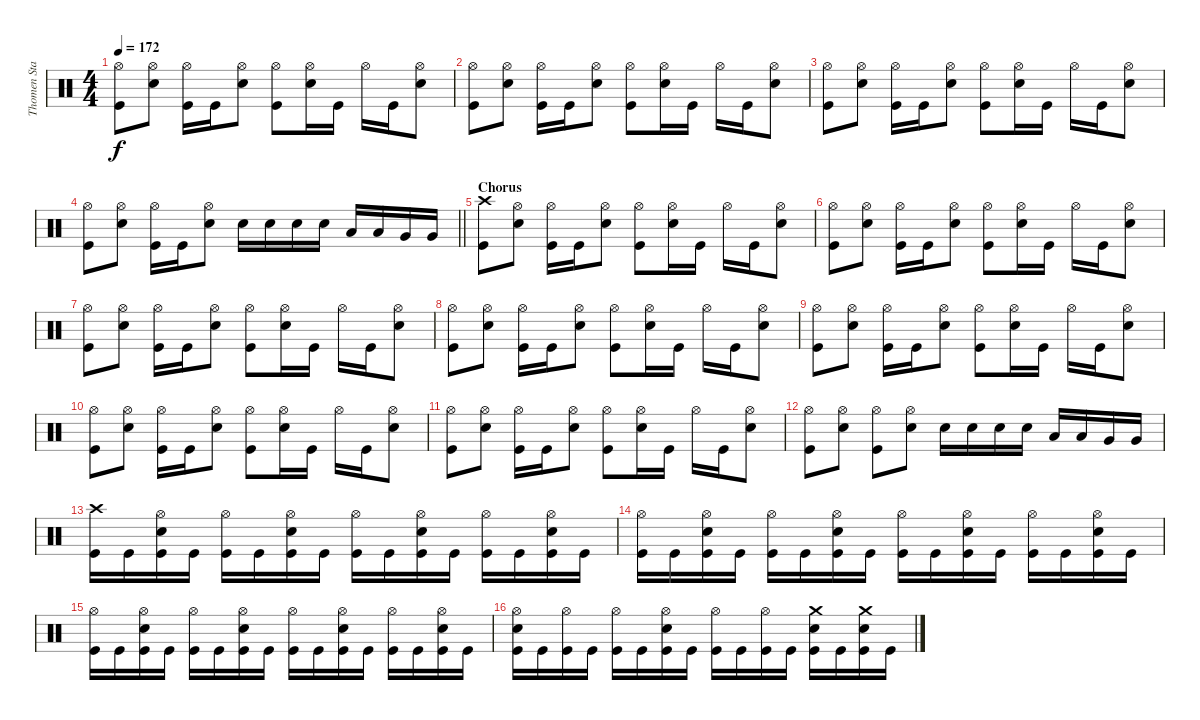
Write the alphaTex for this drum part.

\track ("Thomen Stauch" "Thomen Sta") {instrument percussion}
\staff {score}
\articulation defaults
\ts (4 4)
\tempo 172
\clef neutral
\ks c
("Hi-Hat (open)" "Kick (hit)").8{dy f} ("Hi-Hat (open)" "Snare (hit) 2").8 ("Hi-Hat (open)" "Kick (hit)").16 "Kick (hit)".16 ("Hi-Hat (open)" "Snare (hit) 2").8 ("Hi-Hat (open)" "Kick (hit)").8 ("Hi-Hat (open)" "Snare (hit) 2").16 "Kick (hit)".16 "Hi-Hat (open)".16 "Kick (hit)".16 ("Hi-Hat (open)" "Snare (hit) 2").8 |
("Hi-Hat (open)" "Kick (hit)").8 ("Hi-Hat (open)" "Snare (hit) 2").8 ("Hi-Hat (open)" "Kick (hit)").16 "Kick (hit)".16 ("Hi-Hat (open)" "Snare (hit) 2").8 ("Hi-Hat (open)" "Kick (hit)").8 ("Hi-Hat (open)" "Snare (hit) 2").16 "Kick (hit)".16 "Hi-Hat (open)".16 "Kick (hit)".16 ("Hi-Hat (open)" "Snare (hit) 2").8 |
("Hi-Hat (open)" "Kick (hit)").8 ("Hi-Hat (open)" "Snare (hit) 2").8 ("Hi-Hat (open)" "Kick (hit)").16 "Kick (hit)".16 ("Hi-Hat (open)" "Snare (hit) 2").8 ("Hi-Hat (open)" "Kick (hit)").8 ("Hi-Hat (open)" "Snare (hit) 2").16 "Kick (hit)".16 "Hi-Hat (open)".16 "Kick (hit)".16 ("Hi-Hat (open)" "Snare (hit) 2").8 |
\barLineRight lightlight
("Hi-Hat (open)" "Kick (hit)").8 ("Hi-Hat (open)" "Snare (hit) 2").8 ("Hi-Hat (open)" "Kick (hit)").16 "Kick (hit)".16 ("Hi-Hat (open)" "Snare (hit) 2").8 "Snare (hit) 2".16 "Snare (hit) 2".16 "Snare (hit) 2".16 "Snare (hit) 2".16 "Low Tom (hit)".16 "Low Tom (hit)".16 "Very Low Tom (hit)".16 "Very Low Tom (hit)".16 |
\section ("" "Chorus")
("Crash high (hit)" "Kick (hit)").8 ("Hi-Hat (open)" "Snare (hit) 2").8 ("Hi-Hat (open)" "Kick (hit)").16 "Kick (hit)".16 ("Hi-Hat (open)" "Snare (hit) 2").8 ("Hi-Hat (open)" "Kick (hit)").8 ("Hi-Hat (open)" "Snare (hit) 2").16 "Kick (hit)".16 "Hi-Hat (open)".16 "Kick (hit)".16 ("Hi-Hat (open)" "Snare (hit) 2").8 |
("Hi-Hat (open)" "Kick (hit)").8 ("Hi-Hat (open)" "Snare (hit) 2").8 ("Hi-Hat (open)" "Kick (hit)").16 "Kick (hit)".16 ("Hi-Hat (open)" "Snare (hit) 2").8 ("Hi-Hat (open)" "Kick (hit)").8 ("Hi-Hat (open)" "Snare (hit) 2").16 "Kick (hit)".16 "Hi-Hat (open)".16 "Kick (hit)".16 ("Hi-Hat (open)" "Snare (hit) 2").8 |
("Hi-Hat (open)" "Kick (hit)").8 ("Hi-Hat (open)" "Snare (hit) 2").8 ("Hi-Hat (open)" "Kick (hit)").16 "Kick (hit)".16 ("Hi-Hat (open)" "Snare (hit) 2").8 ("Hi-Hat (open)" "Kick (hit)").8 ("Hi-Hat (open)" "Snare (hit) 2").16 "Kick (hit)".16 "Hi-Hat (open)".16 "Kick (hit)".16 ("Hi-Hat (open)" "Snare (hit) 2").8 |
("Hi-Hat (open)" "Kick (hit)").8 ("Hi-Hat (open)" "Snare (hit) 2").8 ("Hi-Hat (open)" "Kick (hit)").16 "Kick (hit)".16 ("Hi-Hat (open)" "Snare (hit) 2").8 ("Hi-Hat (open)" "Kick (hit)").8 ("Hi-Hat (open)" "Snare (hit) 2").16 "Kick (hit)".16 "Hi-Hat (open)".16 "Kick (hit)".16 ("Hi-Hat (open)" "Snare (hit) 2").8 |
("Hi-Hat (open)" "Kick (hit)").8 ("Hi-Hat (open)" "Snare (hit) 2").8 ("Hi-Hat (open)" "Kick (hit)").16 "Kick (hit)".16 ("Hi-Hat (open)" "Snare (hit) 2").8 ("Hi-Hat (open)" "Kick (hit)").8 ("Hi-Hat (open)" "Snare (hit) 2").16 "Kick (hit)".16 "Hi-Hat (open)".16 "Kick (hit)".16 ("Hi-Hat (open)" "Snare (hit) 2").8 |
("Hi-Hat (open)" "Kick (hit)").8 ("Hi-Hat (open)" "Snare (hit) 2").8 ("Hi-Hat (open)" "Kick (hit)").16 "Kick (hit)".16 ("Hi-Hat (open)" "Snare (hit) 2").8 ("Hi-Hat (open)" "Kick (hit)").8 ("Hi-Hat (open)" "Snare (hit) 2").16 "Kick (hit)".16 "Hi-Hat (open)".16 "Kick (hit)".16 ("Hi-Hat (open)" "Snare (hit) 2").8 |
("Hi-Hat (open)" "Kick (hit)").8 ("Hi-Hat (open)" "Snare (hit) 2").8 ("Hi-Hat (open)" "Kick (hit)").16 "Kick (hit)".16 ("Hi-Hat (open)" "Snare (hit) 2").8 ("Hi-Hat (open)" "Kick (hit)").8 ("Hi-Hat (open)" "Snare (hit) 2").16 "Kick (hit)".16 "Hi-Hat (open)".16 "Kick (hit)".16 ("Hi-Hat (open)" "Snare (hit) 2").8 |
("Hi-Hat (open)" "Kick (hit)").8 ("Hi-Hat (open)" "Snare (hit) 2").8 ("Hi-Hat (open)" "Kick (hit)").8 ("Hi-Hat (open)" "Snare (hit) 2").8 "Snare (hit) 2".16 "Snare (hit) 2".16 "Snare (hit) 2".16 "Snare (hit) 2".16 "Low Tom (hit)".16 "Low Tom (hit)".16 "Very Low Tom (hit)".16 "Very Low Tom (hit)".16 |
("Crash high (hit)" "Kick (hit)").16 "Kick (hit)".16 ("Hi-Hat (open)" "Snare (hit) 2" "Kick (hit)").16 "Kick (hit)".16 ("Hi-Hat (open)" "Kick (hit)").16 "Kick (hit)".16 ("Hi-Hat (open)" "Snare (hit) 2" "Kick (hit)").16 "Kick (hit)".16 ("Hi-Hat (open)" "Kick (hit)").16 "Kick (hit)".16 ("Hi-Hat (open)" "Snare (hit) 2" "Kick (hit)").16 "Kick (hit)".16 ("Hi-Hat (open)" "Kick (hit)").16 "Kick (hit)".16 ("Hi-Hat (open)" "Snare (hit) 2" "Kick (hit)").16 "Kick (hit)".16 |
("Hi-Hat (open)" "Kick (hit)").16 "Kick (hit)".16 ("Hi-Hat (open)" "Snare (hit) 2" "Kick (hit)").16 "Kick (hit)".16 ("Hi-Hat (open)" "Kick (hit)").16 "Kick (hit)".16 ("Hi-Hat (open)" "Snare (hit) 2" "Kick (hit)").16 "Kick (hit)".16 ("Hi-Hat (open)" "Kick (hit)").16 "Kick (hit)".16 ("Hi-Hat (open)" "Snare (hit) 2" "Kick (hit)").16 "Kick (hit)".16 ("Hi-Hat (open)" "Kick (hit)").16 "Kick (hit)".16 ("Hi-Hat (open)" "Snare (hit) 2" "Kick (hit)").16 "Kick (hit)".16 |
("Hi-Hat (open)" "Kick (hit)").16 "Kick (hit)".16 ("Hi-Hat (open)" "Snare (hit) 2" "Kick (hit)").16 "Kick (hit)".16 ("Hi-Hat (open)" "Kick (hit)").16 "Kick (hit)".16 ("Hi-Hat (open)" "Snare (hit) 2" "Kick (hit)").16 "Kick (hit)".16 ("Hi-Hat (open)" "Kick (hit)").16 "Kick (hit)".16 ("Hi-Hat (open)" "Snare (hit) 2" "Kick (hit)").16 "Kick (hit)".16 ("Hi-Hat (open)" "Kick (hit)").16 "Kick (hit)".16 ("Hi-Hat (open)" "Snare (hit) 2" "Kick (hit)").16 "Kick (hit)".16 |
("Hi-Hat (open)" "Snare (hit) 2" "Kick (hit)").16 "Kick (hit)".16 ("Hi-Hat (open)" "Kick (hit)").16 "Kick (hit)".16 ("Hi-Hat (open)" "Kick (hit)").16 "Kick (hit)".16 ("Hi-Hat (open)" "Snare (hit) 2" "Kick (hit)").16 "Kick (hit)".16 ("Hi-Hat (open)" "Kick (hit)").16 "Kick (hit)".16 ("Hi-Hat (open)" "Kick (hit)").16 "Kick (hit)".16 ("Crash medium (hit)" "Snare (hit) 2" "Kick (hit)").16 "Kick (hit)".16 ("Crash medium (hit)" "Snare (hit) 2" "Kick (hit)").16 "Kick (hit)".16
